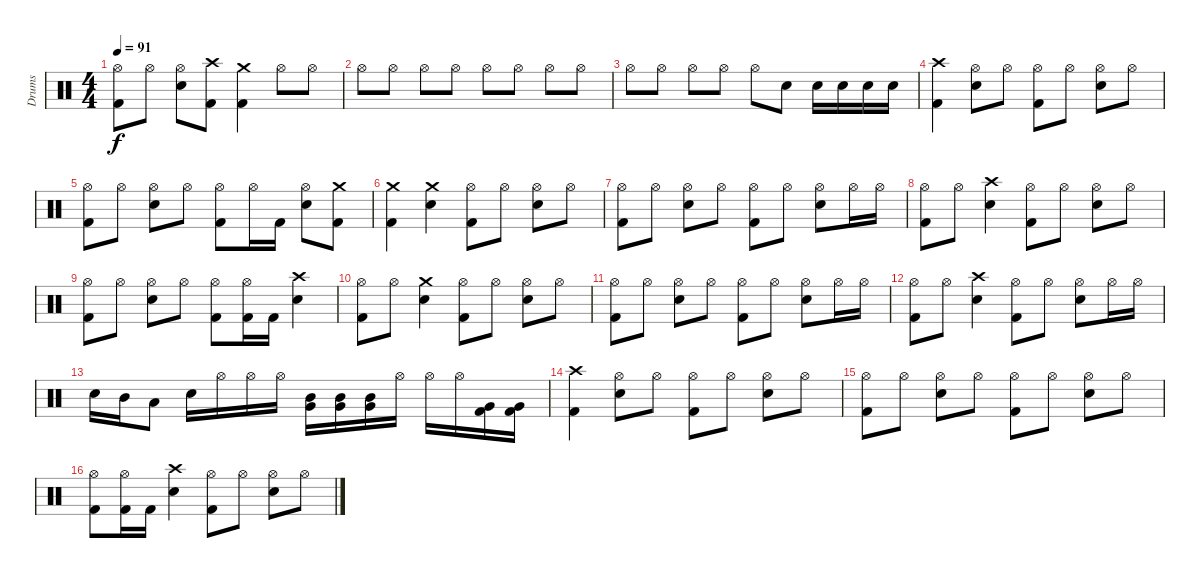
\track ("Drums" "Drums") {instrument percussion}
\staff {score}
\articulation defaults
\ts (4 4)
\tempo 91
\clef neutral
\ks c
("Hi-Hat (open)" "Kick (hit) 2").8{dy f} "Hi-Hat (open)".8 ("Hi-Hat (open)" "Electric Snare (hit)").8 ("Crash high (hit)" "Kick (hit) 2").8 ("Crash medium (hit)" "Kick (hit) 2").4 "Hi-Hat (open)".8 "Hi-Hat (open)".8 |
"Hi-Hat (open)".8 "Hi-Hat (open)".8 "Hi-Hat (open)".8 "Hi-Hat (open)".8 "Hi-Hat (open)".8 "Hi-Hat (open)".8 "Hi-Hat (open)".8 "Hi-Hat (open)".8 |
"Hi-Hat (open)".8 "Hi-Hat (open)".8 "Hi-Hat (open)".8 "Hi-Hat (open)".8 "Hi-Hat (open)".8 "Electric Snare (hit)".8 "Electric Snare (hit)".16 "Electric Snare (hit)".16 "Electric Snare (hit)".16 "Electric Snare (hit)".16 |
("Crash high (hit)" "Kick (hit) 2").4 ("Hi-Hat (open)" "Electric Snare (hit)").8 "Hi-Hat (open)".8 ("Hi-Hat (open)" "Kick (hit) 2").8 "Hi-Hat (open)".8 ("Hi-Hat (open)" "Electric Snare (hit)").8 "Hi-Hat (open)".8 |
("Hi-Hat (open)" "Kick (hit) 2").8 "Hi-Hat (open)".8 ("Hi-Hat (open)" "Electric Snare (hit)").8 "Hi-Hat (open)".8 ("Hi-Hat (open)" "Kick (hit) 2").8 "Hi-Hat (open)".16 "Kick (hit) 2".16 ("Hi-Hat (open)" "Electric Snare (hit)").8 ("Crash medium (hit)" "Kick (hit) 2").8 |
("Crash medium (hit)" "Kick (hit) 2").4 ("Crash medium (hit)" "Electric Snare (hit)").4 ("Hi-Hat (open)" "Kick (hit) 2").8 "Hi-Hat (open)".8 ("Hi-Hat (open)" "Electric Snare (hit)").8 "Hi-Hat (open)".8 |
("Hi-Hat (open)" "Kick (hit) 2").8 "Hi-Hat (open)".8 ("Hi-Hat (open)" "Electric Snare (hit)").8 "Hi-Hat (open)".8 ("Hi-Hat (open)" "Kick (hit) 2").8 "Hi-Hat (open)".8 ("Hi-Hat (open)" "Electric Snare (hit)").8 "Hi-Hat (open)".16 "Hi-Hat (open)".16 |
("Hi-Hat (open)" "Kick (hit) 2").8 "Hi-Hat (open)".8 ("Crash high (hit)" "Electric Snare (hit)").4 ("Hi-Hat (open)" "Kick (hit) 2").8 "Hi-Hat (open)".8 ("Hi-Hat (open)" "Electric Snare (hit)").8 "Hi-Hat (open)".8 |
("Hi-Hat (open)" "Kick (hit) 2").8 "Hi-Hat (open)".8 ("Hi-Hat (open)" "Electric Snare (hit)").8 "Hi-Hat (open)".8 ("Hi-Hat (open)" "Kick (hit) 2").8 ("Hi-Hat (open)" "Kick (hit) 2").16 "Kick (hit) 2".16 ("Crash high (hit)" "Electric Snare (hit)").4 |
("Hi-Hat (open)" "Kick (hit) 2").8 "Hi-Hat (open)".8 ("Crash medium (hit)" "Electric Snare (hit)").4 ("Hi-Hat (open)" "Kick (hit) 2").8 "Hi-Hat (open)".8 ("Hi-Hat (open)" "Electric Snare (hit)").8 "Hi-Hat (open)".8 |
("Hi-Hat (open)" "Kick (hit) 2").8 "Hi-Hat (open)".8 ("Hi-Hat (open)" "Electric Snare (hit)").8 "Hi-Hat (open)".8 ("Hi-Hat (open)" "Kick (hit) 2").8 "Hi-Hat (open)".8 ("Hi-Hat (open)" "Electric Snare (hit)").8 "Hi-Hat (open)".16 "Hi-Hat (open)".16 |
("Hi-Hat (open)" "Kick (hit) 2").8 "Hi-Hat (open)".8 ("Crash high (hit)" "Electric Snare (hit)").4 ("Hi-Hat (open)" "Kick (hit) 2").8 "Hi-Hat (open)".8 ("Hi-Hat (open)" "Electric Snare (hit)").8 "Hi-Hat (open)".16 "Hi-Hat (open)".16 |
"Electric Snare (hit)".16 "Mid Tom (hit)".16 "Low Tom (hit)".8 "Electric Snare (hit)".16 "Hi-Hat (open)".16 "Hi-Hat (open)".16 "Hi-Hat (open)".16 ("Mid Tom (hit)" "Very Low Tom (hit)").16 ("Mid Tom (hit)" "Very Low Tom (hit)").16 ("Mid Tom (hit)" "Very Low Tom (hit)").16 "Hi-Hat (open)".16 "Hi-Hat (open)".16 "Hi-Hat (open)".16 ("Very Low Tom (hit)" "Kick (hit) 2").16 ("Very Low Tom (hit)" "Kick (hit) 2").16 |
("Crash high (hit)" "Kick (hit) 2").4 ("Hi-Hat (open)" "Electric Snare (hit)").8 "Hi-Hat (open)".8 ("Hi-Hat (open)" "Kick (hit) 2").8 "Hi-Hat (open)".8 ("Hi-Hat (open)" "Electric Snare (hit)").8 "Hi-Hat (open)".8 |
("Hi-Hat (open)" "Kick (hit) 2").8 "Hi-Hat (open)".8 ("Hi-Hat (open)" "Electric Snare (hit)").8 "Hi-Hat (open)".8 ("Hi-Hat (open)" "Kick (hit) 2").8 "Hi-Hat (open)".8 ("Hi-Hat (open)" "Electric Snare (hit)").8 "Hi-Hat (open)".8 |
("Hi-Hat (open)" "Kick (hit) 2").8 ("Hi-Hat (open)" "Kick (hit) 2").16 "Kick (hit) 2".16 ("Crash high (hit)" "Electric Snare (hit)").4 ("Hi-Hat (open)" "Kick (hit) 2").8 "Hi-Hat (open)".8 ("Hi-Hat (open)" "Electric Snare (hit)").8 "Hi-Hat (open)".8
